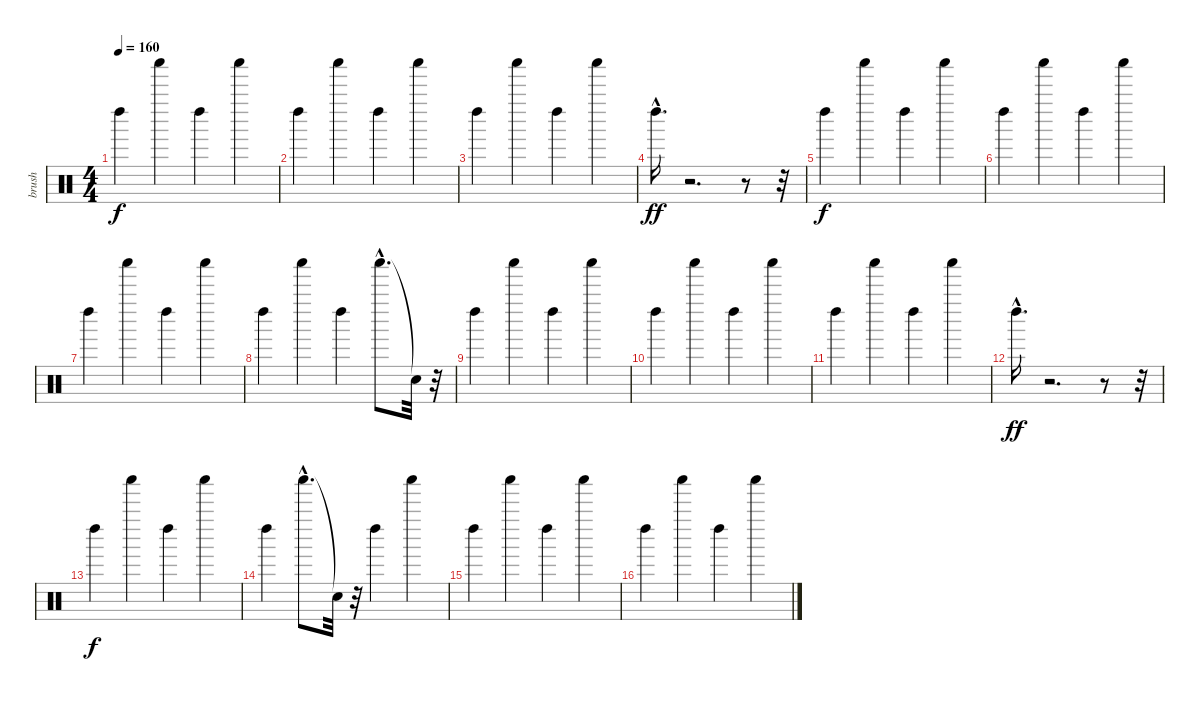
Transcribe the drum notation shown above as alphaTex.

\track ("brush" "brush") {instrument percussion}
\staff {score}
\articulation defaults
\ts (4 4)
\tempo 160
\clef neutral
\ks c "Left Maraca (hit)".4{dy f} "Shaker (hit)".4 "Left Maraca (hit)".4 "Shaker (hit)".4
|
"Left Maraca (hit)".4 "Shaker (hit)".4 "Left Maraca (hit)".4 "Shaker (hit)".4 |
"Left Maraca (hit)".4 "Shaker (hit)".4 "Left Maraca (hit)".4 "Shaker (hit)".4 |
"Left Maraca (hit)"{hac}.16{d dy ff} r.2{d} r.8 r.32 |
"Left Maraca (hit)".4{dy f} "Shaker (hit)".4 "Left Maraca (hit)".4 "Shaker (hit)".4 |
"Left Maraca (hit)".4 "Shaker (hit)".4 "Left Maraca (hit)".4 "Shaker (hit)".4 |
"Left Maraca (hit)".4 "Shaker (hit)".4 "Left Maraca (hit)".4 "Shaker (hit)".4 |
"Left Maraca (hit)".4 "Shaker (hit)".4 "Left Maraca (hit)".4 "Shaker (hit)"{hac}.8{d} "Snare (hit)"{t}.32 r.32 |
"Left Maraca (hit)".4 "Shaker (hit)".4 "Left Maraca (hit)".4 "Shaker (hit)".4 |
"Left Maraca (hit)".4 "Shaker (hit)".4 "Left Maraca (hit)".4 "Shaker (hit)".4 |
"Left Maraca (hit)".4 "Shaker (hit)".4 "Left Maraca (hit)".4 "Shaker (hit)".4 |
"Left Maraca (hit)"{hac}.16{d dy ff} r.2{d} r.8 r.32 |
"Left Maraca (hit)".4{dy f} "Shaker (hit)".4 "Left Maraca (hit)".4 "Shaker (hit)".4 |
"Left Maraca (hit)".4 "Shaker (hit)"{hac}.8{d} "Snare (hit)"{t}.32 r.32 "Left Maraca (hit)".4 "Shaker (hit)".4 |
"Left Maraca (hit)".4 "Shaker (hit)".4 "Left Maraca (hit)".4 "Shaker (hit)".4 |
"Left Maraca (hit)".4 "Shaker (hit)".4 "Left Maraca (hit)".4 "Shaker (hit)".4
